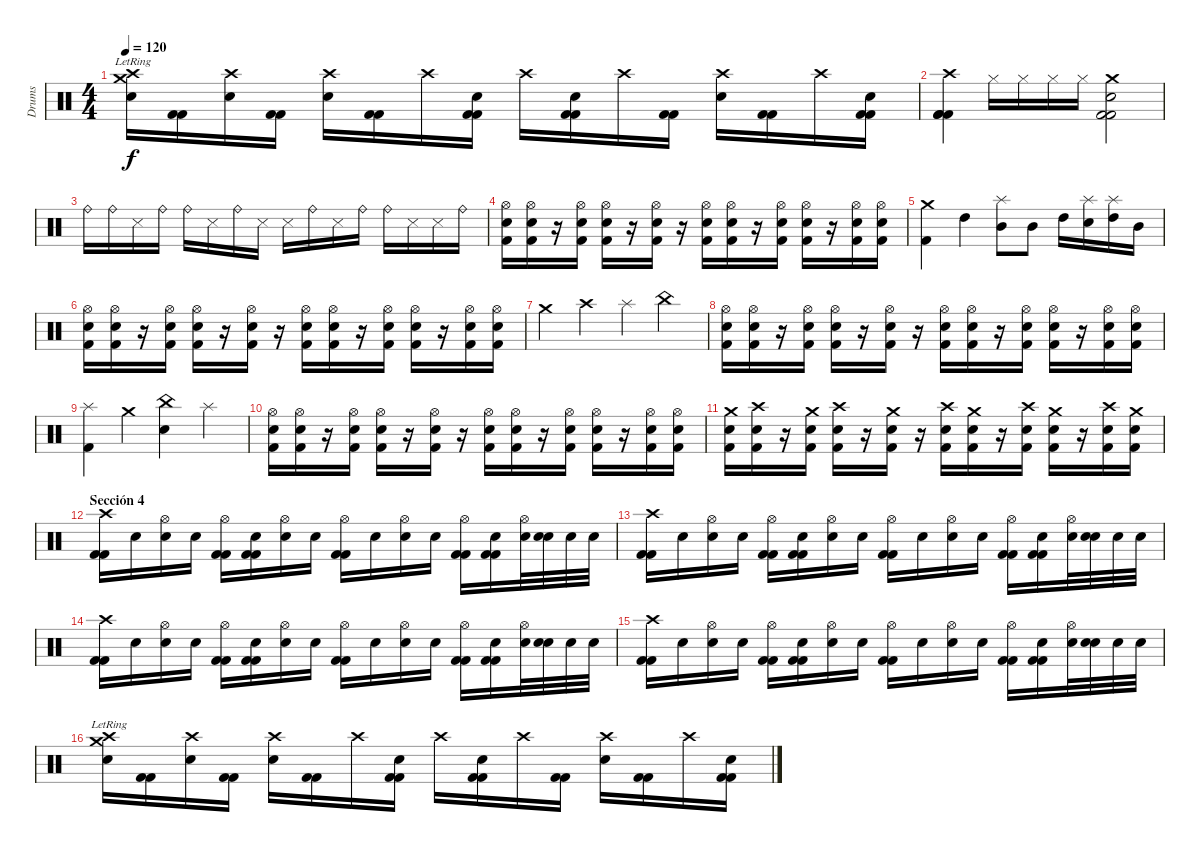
\track ("Drums" "Drums") {instrument percussion}
\staff {score}
\articulation defaults
\ts (4 4)
\tempo 120
\clef neutral
\ks c
("Crash medium (hit)"{lr} "Crash high (hit)"{lr} "Electric Snare (hit)").16{dy f} ("Kick (hit) 2" "Kick (hit) 2").16 ("Crash high (hit)" "Electric Snare (hit)").16 ("Kick (hit) 2" "Kick (hit) 2").16 ("Crash high (hit)" "Electric Snare (hit)").16 ("Kick (hit) 2" "Kick (hit) 2").16 "Crash high (hit)".16 ("Electric Snare (hit)" "Kick (hit) 2" "Kick (hit) 2").16 "Crash high (hit)".16 ("Electric Snare (hit)" "Kick (hit) 2" "Kick (hit) 2").16 "Crash high (hit)".16 ("Kick (hit) 2" "Kick (hit) 2").16 ("Crash high (hit)" "Electric Snare (hit)").16 ("Kick (hit) 2" "Kick (hit) 2").16 "Crash high (hit)".16 ("Electric Snare (hit)" "Kick (hit) 2" "Kick (hit) 2").16 |
("Crash high (hit)" "Kick (hit) 2" "Kick (hit) 2" "Kick (hit) 2").4 "Hi-Hat (closed)".16 "Hi-Hat (closed)".16 "Hi-Hat (closed)".16 "Hi-Hat (closed)".16 ("Crash medium (hit)" "Kick (hit) 2" "Kick (hit) 2" "Snare (hit)").2 |
\section ("" "")
"Ride (bell)".16 "Ride (bell)".16 "Snare (side stick) 3".16 "Ride (bell)".16 "Ride (bell)".16 "Snare (side stick) 3".16 "Ride (bell)".16 "Snare (side stick) 3".16 "Snare (side stick) 3".16 "Ride (bell)".16 "Snare (side stick) 3".16 "Ride (bell)".16 "Ride (bell)".16 "Snare (side stick) 3".16 "Snare (side stick) 3".16 "Ride (bell)".16 |
("Kick (hit) 2" "Electric Snare (hit)" "Hi-Hat (open)").16 ("Kick (hit) 2" "Electric Snare (hit)" "Hi-Hat (open)").16 r.16 ("Kick (hit) 2" "Electric Snare (hit)" "Hi-Hat (open)").16 ("Kick (hit) 2" "Electric Snare (hit)" "Hi-Hat (open)").16 r.16 ("Kick (hit) 2" "Electric Snare (hit)" "Hi-Hat (open)").16 r.16 ("Kick (hit) 2" "Electric Snare (hit)" "Hi-Hat (open)").16 ("Kick (hit) 2" "Electric Snare (hit)" "Hi-Hat (open)").16 r.16 ("Kick (hit) 2" "Electric Snare (hit)" "Hi-Hat (open)").16 ("Kick (hit) 2" "Electric Snare (hit)" "Hi-Hat (open)").16 r.16 ("Kick (hit) 2" "Electric Snare (hit)" "Hi-Hat (open)").16 ("Kick (hit) 2" "Electric Snare (hit)" "Hi-Hat (open)").16 |
("Kick (hit) 2" "Crash medium (hit)").4 "High Tom (hit)".4 ("Splash (hit)" "Mid Tom (hit)").8 "Mid Tom (hit)".8 "High Tom (hit)".16 ("Splash (hit)" "Electric Snare (hit)").16 ("Splash (hit)" "High Tom (hit)").16 "Mid Tom (hit)".16 |
("Kick (hit) 2" "Electric Snare (hit)" "Hi-Hat (open)").16 ("Kick (hit) 2" "Electric Snare (hit)" "Hi-Hat (open)").16 r.16 ("Kick (hit) 2" "Electric Snare (hit)" "Hi-Hat (open)").16 ("Kick (hit) 2" "Electric Snare (hit)" "Hi-Hat (open)").16 r.16 ("Kick (hit) 2" "Electric Snare (hit)" "Hi-Hat (open)").16 r.16 ("Kick (hit) 2" "Electric Snare (hit)" "Hi-Hat (open)").16 ("Kick (hit) 2" "Electric Snare (hit)" "Hi-Hat (open)").16 r.16 ("Kick (hit) 2" "Electric Snare (hit)" "Hi-Hat (open)").16 ("Kick (hit) 2" "Electric Snare (hit)" "Hi-Hat (open)").16 r.16 ("Kick (hit) 2" "Electric Snare (hit)" "Hi-Hat (open)").16 ("Kick (hit) 2" "Electric Snare (hit)" "Hi-Hat (open)").16 |
"Crash medium (hit)".4 "Crash high (hit)".4 "Splash (hit)".4 "China (hit)".4 |
("Kick (hit) 2" "Electric Snare (hit)" "Hi-Hat (open)").16 ("Kick (hit) 2" "Electric Snare (hit)" "Hi-Hat (open)").16 r.16 ("Kick (hit) 2" "Electric Snare (hit)" "Hi-Hat (open)").16 ("Kick (hit) 2" "Electric Snare (hit)" "Hi-Hat (open)").16 r.16 ("Kick (hit) 2" "Electric Snare (hit)" "Hi-Hat (open)").16 r.16 ("Kick (hit) 2" "Electric Snare (hit)" "Hi-Hat (open)").16 ("Kick (hit) 2" "Electric Snare (hit)" "Hi-Hat (open)").16 r.16 ("Kick (hit) 2" "Electric Snare (hit)" "Hi-Hat (open)").16 ("Kick (hit) 2" "Electric Snare (hit)" "Hi-Hat (open)").16 r.16 ("Kick (hit) 2" "Electric Snare (hit)" "Hi-Hat (open)").16 ("Kick (hit) 2" "Electric Snare (hit)" "Hi-Hat (open)").16 |
("Kick (hit) 2" "Splash (hit)").4 "Crash medium (hit)".4 ("Electric Snare (hit)" "China (hit)").4 "Splash (hit)".4 |
("Kick (hit) 2" "Electric Snare (hit)" "Hi-Hat (open)").16 ("Kick (hit) 2" "Electric Snare (hit)" "Hi-Hat (open)").16 r.16 ("Kick (hit) 2" "Electric Snare (hit)" "Hi-Hat (open)").16 ("Kick (hit) 2" "Electric Snare (hit)" "Hi-Hat (open)").16 r.16 ("Kick (hit) 2" "Electric Snare (hit)" "Hi-Hat (open)").16 r.16 ("Kick (hit) 2" "Electric Snare (hit)" "Hi-Hat (open)").16 ("Kick (hit) 2" "Electric Snare (hit)" "Hi-Hat (open)").16 r.16 ("Kick (hit) 2" "Electric Snare (hit)" "Hi-Hat (open)").16 ("Kick (hit) 2" "Electric Snare (hit)" "Hi-Hat (open)").16 r.16 ("Kick (hit) 2" "Electric Snare (hit)" "Hi-Hat (open)").16 ("Kick (hit) 2" "Electric Snare (hit)" "Hi-Hat (open)").16 |
("Kick (hit) 2" "Electric Snare (hit)" "Crash medium (hit)").16 ("Kick (hit) 2" "Electric Snare (hit)" "Crash high (hit)").16 r.16 ("Kick (hit) 2" "Electric Snare (hit)" "Crash medium (hit)").16 ("Kick (hit) 2" "Electric Snare (hit)" "Crash high (hit)").16 r.16 ("Kick (hit) 2" "Electric Snare (hit)" "Crash medium (hit)").16 r.16 ("Kick (hit) 2" "Electric Snare (hit)" "Crash high (hit)").16 ("Kick (hit) 2" "Electric Snare (hit)" "Crash medium (hit)").16 r.16 ("Kick (hit) 2" "Electric Snare (hit)" "Crash high (hit)").16 ("Kick (hit) 2" "Electric Snare (hit)" "Crash medium (hit)").16 r.16 ("Kick (hit) 2" "Electric Snare (hit)" "Crash high (hit)").16 ("Kick (hit) 2" "Electric Snare (hit)" "Crash medium (hit)").16 |
\section ("" "Sección 4")
("Crash high (hit)" "Kick (hit) 2" "Kick (hit) 2").16 "Snare (hit)".16 ("Hi-Hat (open)" "Electric Snare (hit)").16 "Snare (hit)".16 ("Hi-Hat (open)" "Kick (hit) 2" "Kick (hit) 2").16 ("Snare (hit)" "Kick (hit) 2" "Kick (hit) 2").16 ("Hi-Hat (open)" "Electric Snare (hit)").16 "Snare (hit)".16 ("Hi-Hat (open)" "Kick (hit) 2" "Kick (hit) 2").16 "Snare (hit)".16 ("Hi-Hat (open)" "Electric Snare (hit)").16 "Snare (hit)".16 ("Hi-Hat (open)" "Kick (hit) 2" "Kick (hit) 2").16 ("Snare (hit)" "Kick (hit) 2" "Kick (hit) 2").16 ("Hi-Hat (open)" "Electric Snare (hit)").32 ("Snare (hit)" "Electric Snare (hit)").32 "Electric Snare (hit)".32 "Electric Snare (hit)".32 |
("Crash high (hit)" "Kick (hit) 2" "Kick (hit) 2").16 "Snare (hit)".16 ("Hi-Hat (open)" "Electric Snare (hit)").16 "Snare (hit)".16 ("Hi-Hat (open)" "Kick (hit) 2" "Kick (hit) 2").16 ("Snare (hit)" "Kick (hit) 2" "Kick (hit) 2").16 ("Hi-Hat (open)" "Electric Snare (hit)").16 "Snare (hit)".16 ("Hi-Hat (open)" "Kick (hit) 2" "Kick (hit) 2").16 "Snare (hit)".16 ("Hi-Hat (open)" "Electric Snare (hit)").16 "Snare (hit)".16 ("Hi-Hat (open)" "Kick (hit) 2" "Kick (hit) 2").16 ("Snare (hit)" "Kick (hit) 2" "Kick (hit) 2").16 ("Hi-Hat (open)" "Electric Snare (hit)").32 ("Snare (hit)" "Electric Snare (hit)").32 "Electric Snare (hit)".32 "Electric Snare (hit)".32 |
("Crash high (hit)" "Kick (hit) 2" "Kick (hit) 2").16 "Snare (hit)".16 ("Hi-Hat (open)" "Electric Snare (hit)").16 "Snare (hit)".16 ("Hi-Hat (open)" "Kick (hit) 2" "Kick (hit) 2").16 ("Snare (hit)" "Kick (hit) 2" "Kick (hit) 2").16 ("Hi-Hat (open)" "Electric Snare (hit)").16 "Snare (hit)".16 ("Hi-Hat (open)" "Kick (hit) 2" "Kick (hit) 2").16 "Snare (hit)".16 ("Hi-Hat (open)" "Electric Snare (hit)").16 "Snare (hit)".16 ("Hi-Hat (open)" "Kick (hit) 2" "Kick (hit) 2").16 ("Snare (hit)" "Kick (hit) 2" "Kick (hit) 2").16 ("Hi-Hat (open)" "Electric Snare (hit)").32 ("Snare (hit)" "Electric Snare (hit)").32 "Electric Snare (hit)".32 "Electric Snare (hit)".32 |
("Crash high (hit)" "Kick (hit) 2" "Kick (hit) 2").16 "Snare (hit)".16 ("Hi-Hat (open)" "Electric Snare (hit)").16 "Snare (hit)".16 ("Hi-Hat (open)" "Kick (hit) 2" "Kick (hit) 2").16 ("Snare (hit)" "Kick (hit) 2" "Kick (hit) 2").16 ("Hi-Hat (open)" "Electric Snare (hit)").16 "Snare (hit)".16 ("Hi-Hat (open)" "Kick (hit) 2" "Kick (hit) 2").16 "Snare (hit)".16 ("Hi-Hat (open)" "Electric Snare (hit)").16 "Snare (hit)".16 ("Hi-Hat (open)" "Kick (hit) 2" "Kick (hit) 2").16 ("Snare (hit)" "Kick (hit) 2" "Kick (hit) 2").16 ("Hi-Hat (open)" "Electric Snare (hit)").32 ("Snare (hit)" "Electric Snare (hit)").32 "Electric Snare (hit)".32 "Electric Snare (hit)".32 |
("Crash medium (hit)"{lr} "Crash high (hit)"{lr} "Electric Snare (hit)").16 ("Kick (hit) 2" "Kick (hit) 2").16 ("Crash high (hit)" "Electric Snare (hit)").16 ("Kick (hit) 2" "Kick (hit) 2").16 ("Crash high (hit)" "Electric Snare (hit)").16 ("Kick (hit) 2" "Kick (hit) 2").16 "Crash high (hit)".16 ("Electric Snare (hit)" "Kick (hit) 2" "Kick (hit) 2").16 "Crash high (hit)".16 ("Electric Snare (hit)" "Kick (hit) 2" "Kick (hit) 2").16 "Crash high (hit)".16 ("Kick (hit) 2" "Kick (hit) 2").16 ("Crash high (hit)" "Electric Snare (hit)").16 ("Kick (hit) 2" "Kick (hit) 2").16 "Crash high (hit)".16 ("Electric Snare (hit)" "Kick (hit) 2" "Kick (hit) 2").16
